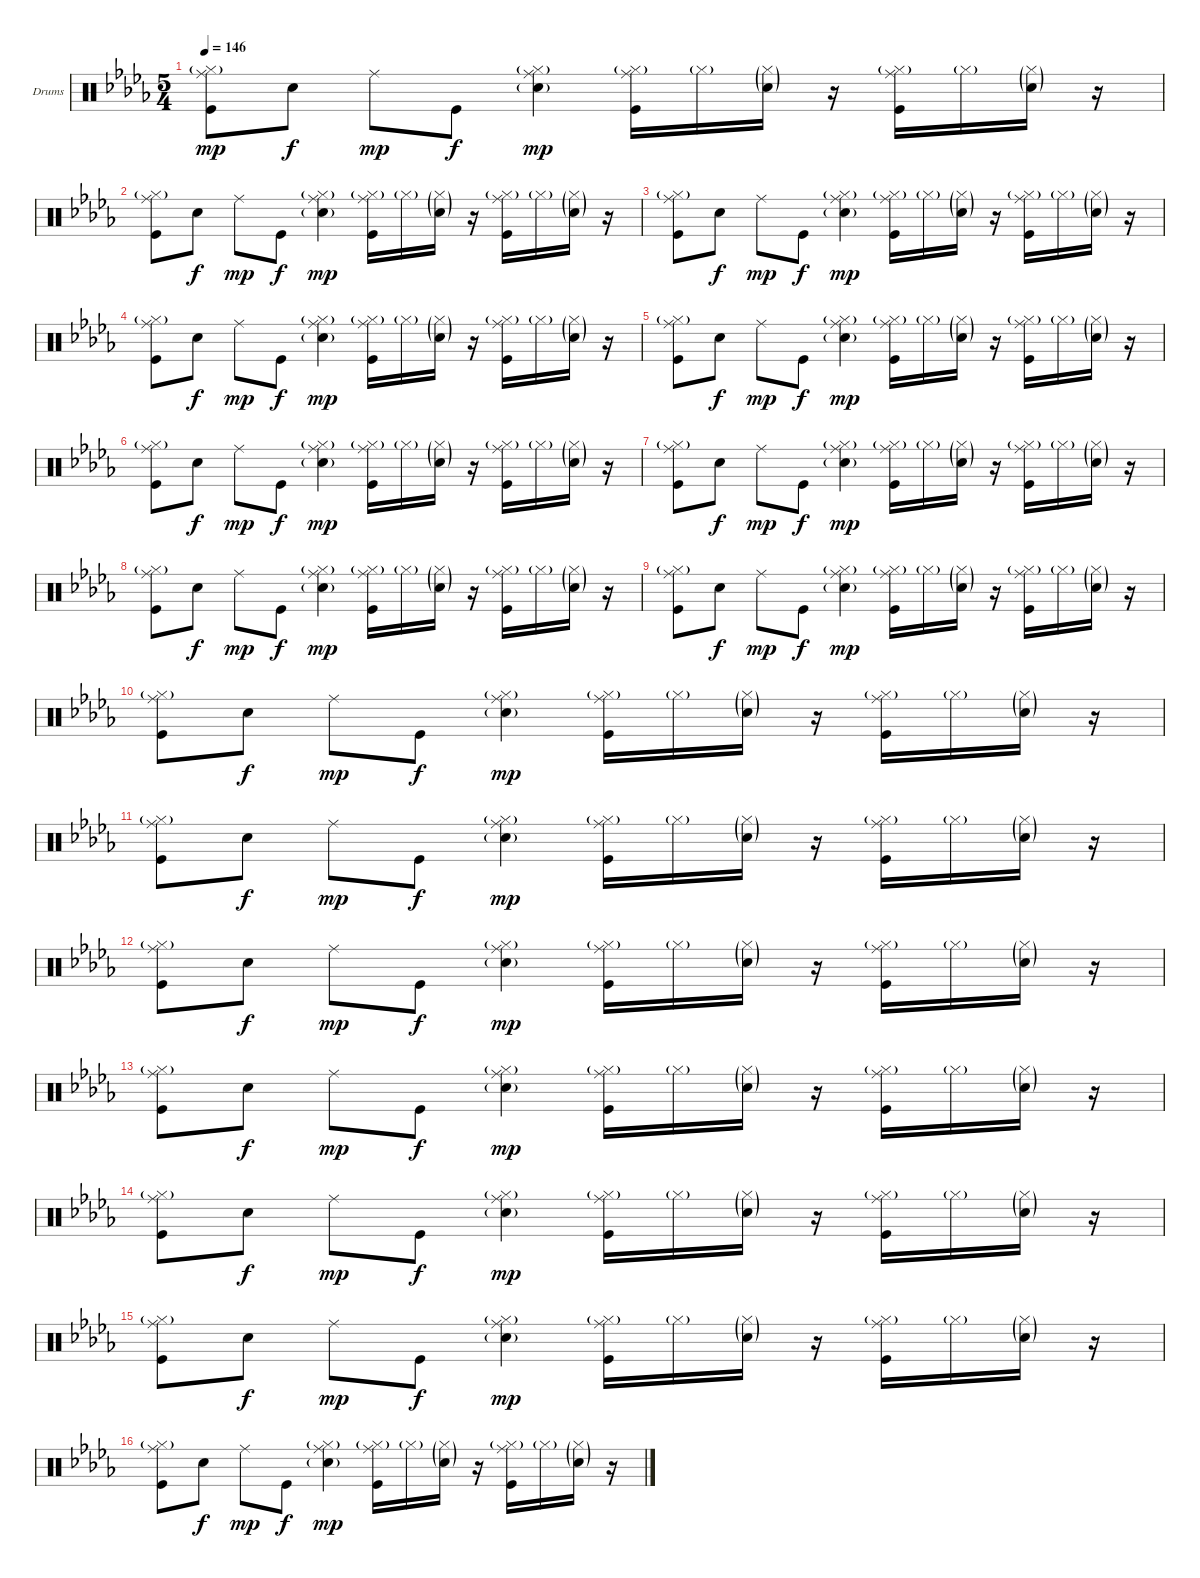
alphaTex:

\bracketExtendMode groupsimilarinstruments
\firstSystemTrackNameOrientation horizontal
\otherSystemsTrackNameOrientation horizontal
\track ("Drumkit" "Drums") {instrument percussion}
\staff {score}
\articulation defaults
\ts (5 4)
\tempo 146
\clef neutral
\ks db
("Hi-Hat (closed)"{g} "Ride (middle)" "Kick (hit)").8{dy mp} "Snare (hit) 2".8{dy f} "Ride (middle)".8{dy mp} "Kick (hit)".8{dy f} ("Hi-Hat (closed)"{g} "Ride (middle)" "Snare (hit) 2"{g}).4{dy mp} ("Hi-Hat (closed)"{g} "Ride (middle)" "Kick (hit)").16 "Hi-Hat (closed)"{g}.16 ("Hi-Hat (closed)"{g} "Snare (hit) 2"{g}).16 r.16 ("Hi-Hat (closed)"{g} "Ride (middle)" "Kick (hit)").16 "Hi-Hat (closed)"{g}.16 ("Hi-Hat (closed)"{g} "Snare (hit) 2"{g}).16 r.16 |
("Hi-Hat (closed)"{g} "Ride (middle)" "Kick (hit)").8 "Snare (hit) 2".8{dy f} "Ride (middle)".8{dy mp} "Kick (hit)".8{dy f} ("Hi-Hat (closed)"{g} "Ride (middle)" "Snare (hit) 2"{g}).4{dy mp} ("Hi-Hat (closed)"{g} "Ride (middle)" "Kick (hit)").16 "Hi-Hat (closed)"{g}.16 ("Hi-Hat (closed)"{g} "Snare (hit) 2"{g}).16 r.16 ("Hi-Hat (closed)"{g} "Ride (middle)" "Kick (hit)").16 "Hi-Hat (closed)"{g}.16 ("Hi-Hat (closed)"{g} "Snare (hit) 2"{g}).16 r.16 |
("Hi-Hat (closed)"{g} "Ride (middle)" "Kick (hit)").8 "Snare (hit) 2".8{dy f} "Ride (middle)".8{dy mp} "Kick (hit)".8{dy f} ("Hi-Hat (closed)"{g} "Ride (middle)" "Snare (hit) 2"{g}).4{dy mp} ("Hi-Hat (closed)"{g} "Ride (middle)" "Kick (hit)").16 "Hi-Hat (closed)"{g}.16 ("Hi-Hat (closed)"{g} "Snare (hit) 2"{g}).16 r.16 ("Hi-Hat (closed)"{g} "Ride (middle)" "Kick (hit)").16 "Hi-Hat (closed)"{g}.16 ("Hi-Hat (closed)"{g} "Snare (hit) 2"{g}).16 r.16 |
("Hi-Hat (closed)"{g} "Ride (middle)" "Kick (hit)").8 "Snare (hit) 2".8{dy f} "Ride (middle)".8{dy mp} "Kick (hit)".8{dy f} ("Hi-Hat (closed)"{g} "Ride (middle)" "Snare (hit) 2"{g}).4{dy mp} ("Hi-Hat (closed)"{g} "Ride (middle)" "Kick (hit)").16 "Hi-Hat (closed)"{g}.16 ("Hi-Hat (closed)"{g} "Snare (hit) 2"{g}).16 r.16 ("Hi-Hat (closed)"{g} "Ride (middle)" "Kick (hit)").16 "Hi-Hat (closed)"{g}.16 ("Hi-Hat (closed)"{g} "Snare (hit) 2"{g}).16 r.16 |
("Hi-Hat (closed)"{g} "Ride (middle)" "Kick (hit)").8 "Snare (hit) 2".8{dy f} "Ride (middle)".8{dy mp} "Kick (hit)".8{dy f} ("Hi-Hat (closed)"{g} "Ride (middle)" "Snare (hit) 2"{g}).4{dy mp} ("Hi-Hat (closed)"{g} "Ride (middle)" "Kick (hit)").16 "Hi-Hat (closed)"{g}.16 ("Hi-Hat (closed)"{g} "Snare (hit) 2"{g}).16 r.16 ("Hi-Hat (closed)"{g} "Ride (middle)" "Kick (hit)").16 "Hi-Hat (closed)"{g}.16 ("Hi-Hat (closed)"{g} "Snare (hit) 2"{g}).16 r.16 |
("Hi-Hat (closed)"{g} "Ride (middle)" "Kick (hit)").8 "Snare (hit) 2".8{dy f} "Ride (middle)".8{dy mp} "Kick (hit)".8{dy f} ("Hi-Hat (closed)"{g} "Ride (middle)" "Snare (hit) 2"{g}).4{dy mp} ("Hi-Hat (closed)"{g} "Ride (middle)" "Kick (hit)").16 "Hi-Hat (closed)"{g}.16 ("Hi-Hat (closed)"{g} "Snare (hit) 2"{g}).16 r.16 ("Hi-Hat (closed)"{g} "Ride (middle)" "Kick (hit)").16 "Hi-Hat (closed)"{g}.16 ("Hi-Hat (closed)"{g} "Snare (hit) 2"{g}).16 r.16 |
("Hi-Hat (closed)"{g} "Ride (middle)" "Kick (hit)").8 "Snare (hit) 2".8{dy f} "Ride (middle)".8{dy mp} "Kick (hit)".8{dy f} ("Hi-Hat (closed)"{g} "Ride (middle)" "Snare (hit) 2"{g}).4{dy mp} ("Hi-Hat (closed)"{g} "Ride (middle)" "Kick (hit)").16 "Hi-Hat (closed)"{g}.16 ("Hi-Hat (closed)"{g} "Snare (hit) 2"{g}).16 r.16 ("Hi-Hat (closed)"{g} "Ride (middle)" "Kick (hit)").16 "Hi-Hat (closed)"{g}.16 ("Hi-Hat (closed)"{g} "Snare (hit) 2"{g}).16 r.16 |
("Hi-Hat (closed)"{g} "Ride (middle)" "Kick (hit)").8 "Snare (hit) 2".8{dy f} "Ride (middle)".8{dy mp} "Kick (hit)".8{dy f} ("Hi-Hat (closed)"{g} "Ride (middle)" "Snare (hit) 2"{g}).4{dy mp} ("Hi-Hat (closed)"{g} "Ride (middle)" "Kick (hit)").16 "Hi-Hat (closed)"{g}.16 ("Hi-Hat (closed)"{g} "Snare (hit) 2"{g}).16 r.16 ("Hi-Hat (closed)"{g} "Ride (middle)" "Kick (hit)").16 "Hi-Hat (closed)"{g}.16 ("Hi-Hat (closed)"{g} "Snare (hit) 2"{g}).16 r.16 |
("Hi-Hat (closed)"{g} "Ride (middle)" "Kick (hit)").8 "Snare (hit) 2".8{dy f} "Ride (middle)".8{dy mp} "Kick (hit)".8{dy f} ("Hi-Hat (closed)"{g} "Ride (middle)" "Snare (hit) 2"{g}).4{dy mp} ("Hi-Hat (closed)"{g} "Ride (middle)" "Kick (hit)").16 "Hi-Hat (closed)"{g}.16 ("Hi-Hat (closed)"{g} "Snare (hit) 2"{g}).16 r.16 ("Hi-Hat (closed)"{g} "Ride (middle)" "Kick (hit)").16 "Hi-Hat (closed)"{g}.16 ("Hi-Hat (closed)"{g} "Snare (hit) 2"{g}).16 r.16 |
("Hi-Hat (closed)"{g} "Ride (middle)" "Kick (hit)").8 "Snare (hit) 2".8{dy f} "Ride (middle)".8{dy mp} "Kick (hit)".8{dy f} ("Hi-Hat (closed)"{g} "Ride (middle)" "Snare (hit) 2"{g}).4{dy mp} ("Hi-Hat (closed)"{g} "Ride (middle)" "Kick (hit)").16 "Hi-Hat (closed)"{g}.16 ("Hi-Hat (closed)"{g} "Snare (hit) 2"{g}).16 r.16 ("Hi-Hat (closed)"{g} "Ride (middle)" "Kick (hit)").16 "Hi-Hat (closed)"{g}.16 ("Hi-Hat (closed)"{g} "Snare (hit) 2"{g}).16 r.16 |
("Hi-Hat (closed)"{g} "Ride (middle)" "Kick (hit)").8 "Snare (hit) 2".8{dy f} "Ride (middle)".8{dy mp} "Kick (hit)".8{dy f} ("Hi-Hat (closed)"{g} "Ride (middle)" "Snare (hit) 2"{g}).4{dy mp} ("Hi-Hat (closed)"{g} "Ride (middle)" "Kick (hit)").16 "Hi-Hat (closed)"{g}.16 ("Hi-Hat (closed)"{g} "Snare (hit) 2"{g}).16 r.16 ("Hi-Hat (closed)"{g} "Ride (middle)" "Kick (hit)").16 "Hi-Hat (closed)"{g}.16 ("Hi-Hat (closed)"{g} "Snare (hit) 2"{g}).16 r.16 |
("Hi-Hat (closed)"{g} "Ride (middle)" "Kick (hit)").8 "Snare (hit) 2".8{dy f} "Ride (middle)".8{dy mp} "Kick (hit)".8{dy f} ("Hi-Hat (closed)"{g} "Ride (middle)" "Snare (hit) 2"{g}).4{dy mp} ("Hi-Hat (closed)"{g} "Ride (middle)" "Kick (hit)").16 "Hi-Hat (closed)"{g}.16 ("Hi-Hat (closed)"{g} "Snare (hit) 2"{g}).16 r.16 ("Hi-Hat (closed)"{g} "Ride (middle)" "Kick (hit)").16 "Hi-Hat (closed)"{g}.16 ("Hi-Hat (closed)"{g} "Snare (hit) 2"{g}).16 r.16 |
("Hi-Hat (closed)"{g} "Ride (middle)" "Kick (hit)").8 "Snare (hit) 2".8{dy f} "Ride (middle)".8{dy mp} "Kick (hit)".8{dy f} ("Hi-Hat (closed)"{g} "Ride (middle)" "Snare (hit) 2"{g}).4{dy mp} ("Hi-Hat (closed)"{g} "Ride (middle)" "Kick (hit)").16 "Hi-Hat (closed)"{g}.16 ("Hi-Hat (closed)"{g} "Snare (hit) 2"{g}).16 r.16 ("Hi-Hat (closed)"{g} "Ride (middle)" "Kick (hit)").16 "Hi-Hat (closed)"{g}.16 ("Hi-Hat (closed)"{g} "Snare (hit) 2"{g}).16 r.16 |
("Hi-Hat (closed)"{g} "Ride (middle)" "Kick (hit)").8 "Snare (hit) 2".8{dy f} "Ride (middle)".8{dy mp} "Kick (hit)".8{dy f} ("Hi-Hat (closed)"{g} "Ride (middle)" "Snare (hit) 2"{g}).4{dy mp} ("Hi-Hat (closed)"{g} "Ride (middle)" "Kick (hit)").16 "Hi-Hat (closed)"{g}.16 ("Hi-Hat (closed)"{g} "Snare (hit) 2"{g}).16 r.16 ("Hi-Hat (closed)"{g} "Ride (middle)" "Kick (hit)").16 "Hi-Hat (closed)"{g}.16 ("Hi-Hat (closed)"{g} "Snare (hit) 2"{g}).16 r.16 |
("Hi-Hat (closed)"{g} "Ride (middle)" "Kick (hit)").8 "Snare (hit) 2".8{dy f} "Ride (middle)".8{dy mp} "Kick (hit)".8{dy f} ("Hi-Hat (closed)"{g} "Ride (middle)" "Snare (hit) 2"{g}).4{dy mp} ("Hi-Hat (closed)"{g} "Ride (middle)" "Kick (hit)").16 "Hi-Hat (closed)"{g}.16 ("Hi-Hat (closed)"{g} "Snare (hit) 2"{g}).16 r.16 ("Hi-Hat (closed)"{g} "Ride (middle)" "Kick (hit)").16 "Hi-Hat (closed)"{g}.16 ("Hi-Hat (closed)"{g} "Snare (hit) 2"{g}).16 r.16 |
("Hi-Hat (closed)"{g} "Ride (middle)" "Kick (hit)").8 "Snare (hit) 2".8{dy f} "Ride (middle)".8{dy mp} "Kick (hit)".8{dy f} ("Hi-Hat (closed)"{g} "Ride (middle)" "Snare (hit) 2"{g}).4{dy mp} ("Hi-Hat (closed)"{g} "Ride (middle)" "Kick (hit)").16 "Hi-Hat (closed)"{g}.16 ("Hi-Hat (closed)"{g} "Snare (hit) 2"{g}).16 r.16 ("Hi-Hat (closed)"{g} "Ride (middle)" "Kick (hit)").16 "Hi-Hat (closed)"{g}.16 ("Hi-Hat (closed)"{g} "Snare (hit) 2"{g}).16 r.16
